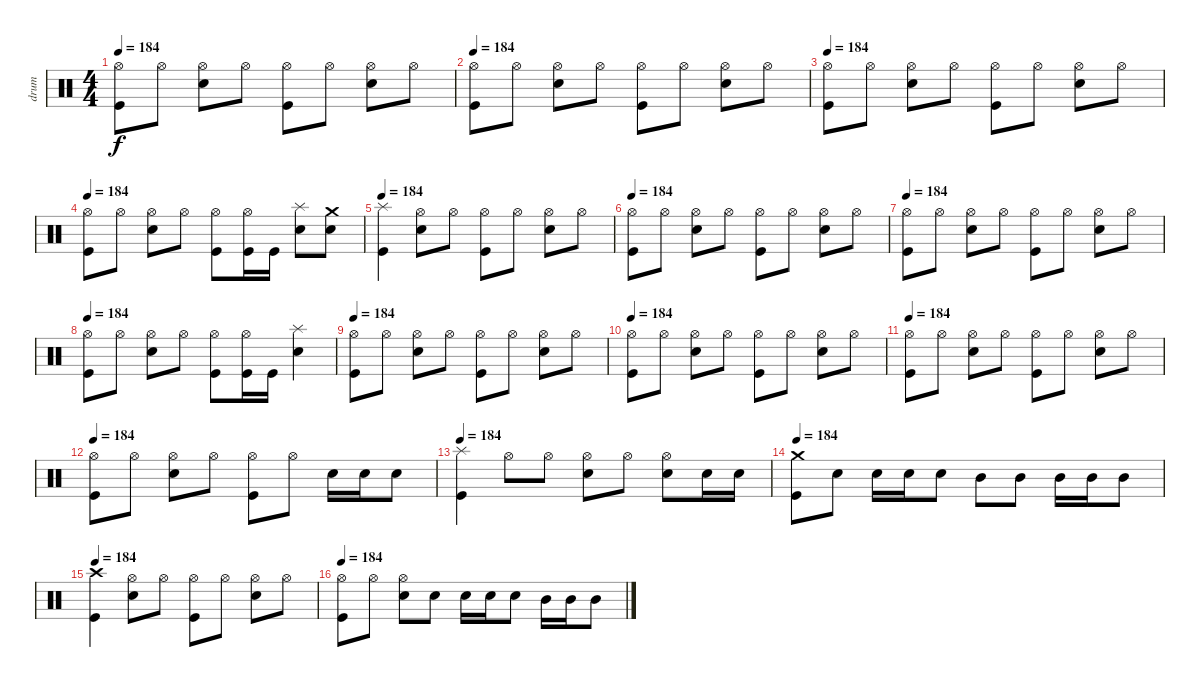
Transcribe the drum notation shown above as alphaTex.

\track ("drum" "drum") {instrument percussion}
\staff {score}
\articulation defaults
\ts (4 4)
\tempo 184
\clef neutral
\ks c
("Kick (hit)" "Hi-Hat (open)").8{dy f} "Hi-Hat (open)".8 ("Electric Snare (hit)" "Hi-Hat (open)").8 "Hi-Hat (open)".8 ("Kick (hit)" "Hi-Hat (open)").8 "Hi-Hat (open)".8 ("Electric Snare (hit)" "Hi-Hat (open)").8 "Hi-Hat (open)".8 |
\tempo 184
("Kick (hit)" "Hi-Hat (open)").8 "Hi-Hat (open)".8 ("Electric Snare (hit)" "Hi-Hat (open)").8 "Hi-Hat (open)".8 ("Kick (hit)" "Hi-Hat (open)").8 "Hi-Hat (open)".8 ("Electric Snare (hit)" "Hi-Hat (open)").8 "Hi-Hat (open)".8 |
\tempo 184
("Kick (hit)" "Hi-Hat (open)").8 "Hi-Hat (open)".8 ("Electric Snare (hit)" "Hi-Hat (open)").8 "Hi-Hat (open)".8 ("Kick (hit)" "Hi-Hat (open)").8 "Hi-Hat (open)".8 ("Electric Snare (hit)" "Hi-Hat (open)").8 "Hi-Hat (open)".8 |
\tempo 184
("Kick (hit)" "Hi-Hat (open)").8 "Hi-Hat (open)".8 ("Electric Snare (hit)" "Hi-Hat (open)").8 "Hi-Hat (open)".8 ("Kick (hit)" "Hi-Hat (open)").8 ("Kick (hit)" "Hi-Hat (open)").16 "Kick (hit)".16 ("Electric Snare (hit)" "Splash (hit)").8 ("Electric Snare (hit)" "Crash medium (hit)").8 |
\tempo 184
("Kick (hit)" "Splash (hit)").4 ("Electric Snare (hit)" "Hi-Hat (open)").8 "Hi-Hat (open)".8 ("Kick (hit)" "Hi-Hat (open)").8 "Hi-Hat (open)".8 ("Electric Snare (hit)" "Hi-Hat (open)").8 "Hi-Hat (open)".8 |
\tempo 184
("Kick (hit)" "Hi-Hat (open)").8 "Hi-Hat (open)".8 ("Electric Snare (hit)" "Hi-Hat (open)").8 "Hi-Hat (open)".8 ("Kick (hit)" "Hi-Hat (open)").8 "Hi-Hat (open)".8 ("Electric Snare (hit)" "Hi-Hat (open)").8 "Hi-Hat (open)".8 |
\tempo 184
("Kick (hit)" "Hi-Hat (open)").8 "Hi-Hat (open)".8 ("Electric Snare (hit)" "Hi-Hat (open)").8 "Hi-Hat (open)".8 ("Kick (hit)" "Hi-Hat (open)").8 "Hi-Hat (open)".8 ("Electric Snare (hit)" "Hi-Hat (open)").8 "Hi-Hat (open)".8 |
\tempo 184
("Kick (hit)" "Hi-Hat (open)").8 "Hi-Hat (open)".8 ("Electric Snare (hit)" "Hi-Hat (open)").8 "Hi-Hat (open)".8 ("Kick (hit)" "Hi-Hat (open)").8 ("Kick (hit)" "Hi-Hat (open)").16 "Kick (hit)".16 ("Electric Snare (hit)" "Splash (hit)").4 |
\tempo 184
("Kick (hit)" "Hi-Hat (open)").8 "Hi-Hat (open)".8 ("Electric Snare (hit)" "Hi-Hat (open)").8 "Hi-Hat (open)".8 ("Kick (hit)" "Hi-Hat (open)").8 "Hi-Hat (open)".8 ("Electric Snare (hit)" "Hi-Hat (open)").8 "Hi-Hat (open)".8 |
\tempo 184
("Kick (hit)" "Hi-Hat (open)").8 "Hi-Hat (open)".8 ("Electric Snare (hit)" "Hi-Hat (open)").8 "Hi-Hat (open)".8 ("Kick (hit)" "Hi-Hat (open)").8 "Hi-Hat (open)".8 ("Electric Snare (hit)" "Hi-Hat (open)").8 "Hi-Hat (open)".8 |
\tempo 184
("Kick (hit)" "Hi-Hat (open)").8 "Hi-Hat (open)".8 ("Electric Snare (hit)" "Hi-Hat (open)").8 "Hi-Hat (open)".8 ("Kick (hit)" "Hi-Hat (open)").8 "Hi-Hat (open)".8 ("Electric Snare (hit)" "Hi-Hat (open)").8 "Hi-Hat (open)".8 |
\tempo 184
("Kick (hit)" "Hi-Hat (open)").8 "Hi-Hat (open)".8 ("Electric Snare (hit)" "Hi-Hat (open)").8 "Hi-Hat (open)".8 ("Kick (hit)" "Hi-Hat (open)").8 "Hi-Hat (open)".8 "Electric Snare (hit)".16 "Electric Snare (hit)".16 "Electric Snare (hit)".8 |
\tempo 184
("Kick (hit)" "Splash (hit)").4 "Hi-Hat (open)".8 "Hi-Hat (open)".8 ("Electric Snare (hit)" "Hi-Hat (open)").8 "Hi-Hat (open)".8 ("Electric Snare (hit)" "Hi-Hat (open)").8 "Electric Snare (hit)".16 "Electric Snare (hit)".16 |
\tempo 184
("Kick (hit)" "Crash medium (hit)").8 "Electric Snare (hit)".8 "Electric Snare (hit)".16 "Electric Snare (hit)".16 "Electric Snare (hit)".8 "Mid Tom (hit)".8 "Mid Tom (hit)".8 "Mid Tom (hit)".16 "Mid Tom (hit)".16 "Mid Tom (hit)".8 |
\tempo 184
("Kick (hit)" "Crash high (hit)").4 ("Electric Snare (hit)" "Hi-Hat (open)").8 "Hi-Hat (open)".8 ("Kick (hit)" "Hi-Hat (open)").8 "Hi-Hat (open)".8 ("Electric Snare (hit)" "Hi-Hat (open)").8 "Hi-Hat (open)".8 |
\tempo 184
("Kick (hit)" "Hi-Hat (open)").8 "Hi-Hat (open)".8 ("Electric Snare (hit)" "Hi-Hat (open)").8 "Electric Snare (hit)".8 "Electric Snare (hit)".16 "Electric Snare (hit)".16 "Electric Snare (hit)".8 "Mid Tom (hit)".16 "Mid Tom (hit)".16 "Mid Tom (hit)".8
